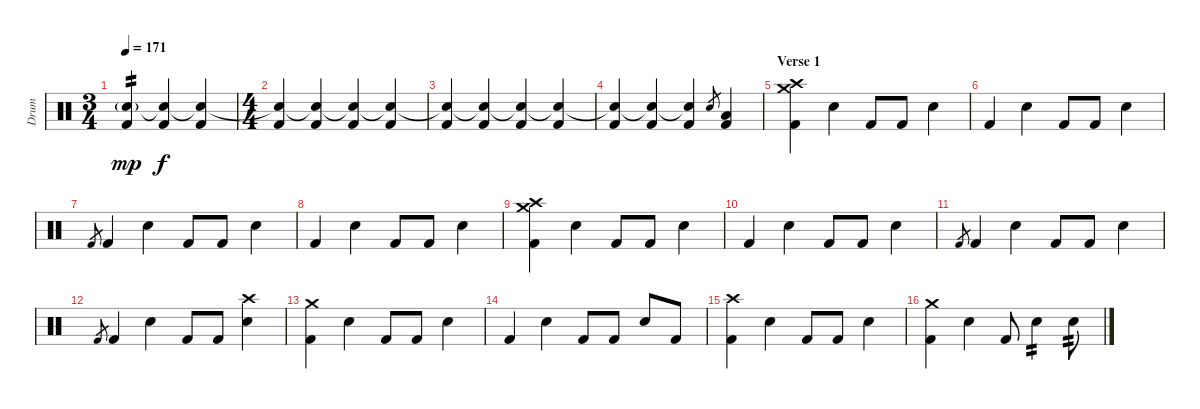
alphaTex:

\track ("Drum" "Drum") {instrument percussion}
\staff {score}
\articulation defaults
\ts (3 4)
\tempo 171
\clef neutral
\ks c
("Electric Snare (hit)"{g} "Kick (hit) 2").4{tp 2 dy mp} ("Snare (hit)"{t} "Kick (hit) 2").4{dy f} ("Snare (hit)"{t} "Kick (hit) 2").4 |
\ts (4 4)
("Electric Snare (hit)"{t} "Kick (hit) 2").4 ("Snare (hit)"{t} "Kick (hit) 2").4 ("Snare (hit)"{t} "Kick (hit) 2").4 ("Snare (hit)"{t} "Kick (hit) 2").4 |
("Electric Snare (hit)"{t} "Kick (hit) 2").4 ("Snare (hit)"{t} "Kick (hit) 2").4 ("Snare (hit)"{t} "Kick (hit) 2").4 ("Snare (hit)"{t} "Kick (hit) 2").4 |
("Electric Snare (hit)"{t} "Kick (hit) 2").4 ("Snare (hit)"{t} "Kick (hit) 2").4 ("Snare (hit)"{t} "Kick (hit) 2").4 "Electric Snare (hit)".8{gr} ("Low Tom (hit)" "Kick (hit) 2").4 |
\section ("" "Verse 1")
("Kick (hit) 2" "Crash medium (hit)" "Crash high (hit)").4 "Electric Snare (hit)".4 "Kick (hit) 2".8 "Kick (hit) 2".8 "Electric Snare (hit)".4 |
"Kick (hit) 2".4 "Electric Snare (hit)".4 "Kick (hit) 2".8 "Kick (hit) 2".8 "Electric Snare (hit)".4 |
"Kick (hit) 2".8{gr} "Kick (hit) 2".4 "Electric Snare (hit)".4 "Kick (hit) 2".8 "Kick (hit) 2".8 "Electric Snare (hit)".4 |
"Kick (hit) 2".4 "Electric Snare (hit)".4 "Kick (hit) 2".8 "Kick (hit) 2".8 "Electric Snare (hit)".4 |
("Kick (hit) 2" "Crash medium (hit)" "Crash high (hit)").4 "Electric Snare (hit)".4 "Kick (hit) 2".8 "Kick (hit) 2".8 "Electric Snare (hit)".4 |
"Kick (hit) 2".4 "Electric Snare (hit)".4 "Kick (hit) 2".8 "Kick (hit) 2".8 "Electric Snare (hit)".4 |
"Kick (hit) 2".8{gr} "Kick (hit) 2".4 "Electric Snare (hit)".4 "Kick (hit) 2".8 "Kick (hit) 2".8 "Electric Snare (hit)".4 |
"Kick (hit) 2".8{gr} "Kick (hit) 2".4 "Electric Snare (hit)".4 "Kick (hit) 2".8 "Kick (hit) 2".8 ("Electric Snare (hit)" "Crash high (hit)").4 |
("Kick (hit) 2" "Crash medium (hit)").4 "Electric Snare (hit)".4 "Kick (hit) 2".8 "Kick (hit) 2".8 "Electric Snare (hit)".4 |
"Kick (hit) 2".4 "Electric Snare (hit)".4 "Kick (hit) 2".8 "Kick (hit) 2".8 "Electric Snare (hit)".8 "Kick (hit) 2".8 |
("Kick (hit) 2" "Crash high (hit)").4 "Electric Snare (hit)".4 "Kick (hit) 2".8 "Kick (hit) 2".8 "Electric Snare (hit)".4 |
("Kick (hit) 2" "Crash medium (hit)").4 "Electric Snare (hit)".4 "Kick (hit) 2".8 "Electric Snare (hit)".4{tp 2} "Electric Snare (hit)".8{tp 2}
